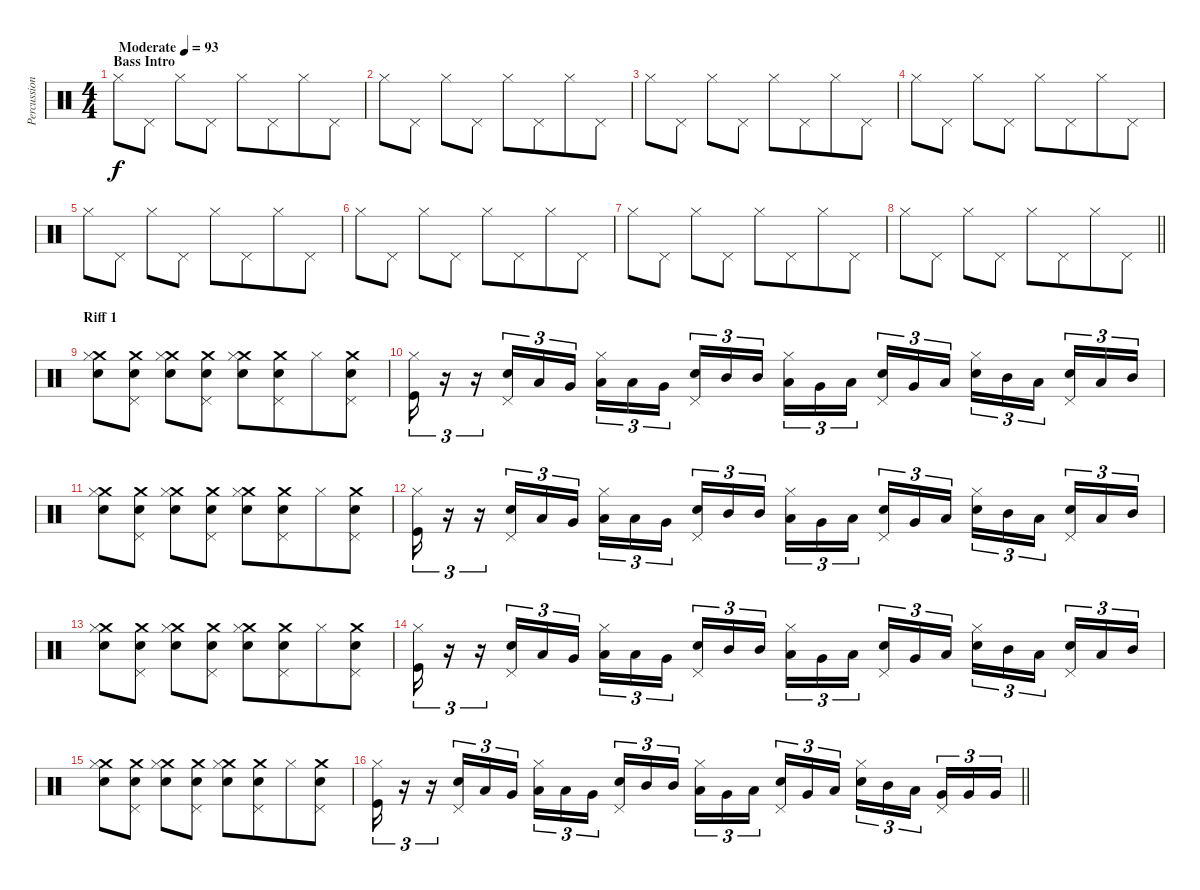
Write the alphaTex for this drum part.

\track ("Percussion" "Percussion") {instrument percussion}
\staff {score}
\articulation defaults
\ts (4 4)
\section ("" "Bass Intro")
\tempo (93 "Moderate")
\clef neutral
\ks c "Hi-Hat (closed)".8{dy f} "Pedal Hi-Hat (hit)".8 "Hi-Hat (closed)".8{beam merge} "Pedal Hi-Hat (hit)".8 "Hi-Hat (closed)".8 "Pedal Hi-Hat (hit)".8{beam merge} "Hi-Hat (closed)".8 "Pedal Hi-Hat (hit)".8
|
"Hi-Hat (closed)".8 "Pedal Hi-Hat (hit)".8 "Hi-Hat (closed)".8{beam merge} "Pedal Hi-Hat (hit)".8 "Hi-Hat (closed)".8 "Pedal Hi-Hat (hit)".8{beam merge} "Hi-Hat (closed)".8 "Pedal Hi-Hat (hit)".8 |
"Hi-Hat (closed)".8 "Pedal Hi-Hat (hit)".8 "Hi-Hat (closed)".8{beam merge} "Pedal Hi-Hat (hit)".8 "Hi-Hat (closed)".8 "Pedal Hi-Hat (hit)".8{beam merge} "Hi-Hat (closed)".8 "Pedal Hi-Hat (hit)".8 |
"Hi-Hat (closed)".8 "Pedal Hi-Hat (hit)".8 "Hi-Hat (closed)".8{beam merge} "Pedal Hi-Hat (hit)".8 "Hi-Hat (closed)".8 "Pedal Hi-Hat (hit)".8{beam merge} "Hi-Hat (closed)".8 "Pedal Hi-Hat (hit)".8 |
"Hi-Hat (closed)".8 "Pedal Hi-Hat (hit)".8 "Hi-Hat (closed)".8{beam merge} "Pedal Hi-Hat (hit)".8 "Hi-Hat (closed)".8 "Pedal Hi-Hat (hit)".8{beam merge} "Hi-Hat (closed)".8 "Pedal Hi-Hat (hit)".8 |
"Hi-Hat (closed)".8 "Pedal Hi-Hat (hit)".8 "Hi-Hat (closed)".8{beam merge} "Pedal Hi-Hat (hit)".8 "Hi-Hat (closed)".8 "Pedal Hi-Hat (hit)".8{beam merge} "Hi-Hat (closed)".8 "Pedal Hi-Hat (hit)".8 |
"Hi-Hat (closed)".8 "Pedal Hi-Hat (hit)".8 "Hi-Hat (closed)".8{beam merge} "Pedal Hi-Hat (hit)".8 "Hi-Hat (closed)".8 "Pedal Hi-Hat (hit)".8{beam merge} "Hi-Hat (closed)".8 "Pedal Hi-Hat (hit)".8 |
\barLineRight lightlight "Hi-Hat (closed)".8 "Pedal Hi-Hat (hit)".8 "Hi-Hat (closed)".8{beam merge} "Pedal Hi-Hat (hit)".8 "Hi-Hat (closed)".8 "Pedal Hi-Hat (hit)".8{beam merge} "Hi-Hat (closed)".8 "Pedal Hi-Hat (hit)".8
|
\section ("" "Riff 1")
("Crash medium (hit)" "Hi-Hat (closed)" "Snare (hit) 2").8 ("Crash medium (hit)" "Pedal Hi-Hat (hit)" "Snare (hit) 2").8 ("Crash medium (hit)" "Hi-Hat (closed)" "Snare (hit) 2").8{beam merge} ("Crash medium (hit)" "Pedal Hi-Hat (hit)" "Snare (hit) 2").8 ("Crash medium (hit)" "Hi-Hat (closed)" "Snare (hit) 2").8 ("Crash medium (hit)" "Pedal Hi-Hat (hit)" "Snare (hit) 2").8{beam merge} "Hi-Hat (closed)".8 ("Crash medium (hit)" "Pedal Hi-Hat (hit)" "Snare (hit) 2").8 |
("Hi-Hat (closed)" "Kick (hit)").16{tu (3 2)} r.16{tu (3 2)} r.16{tu (3 2)} ("Pedal Hi-Hat (hit)" "Snare (hit) 2").16{tu (3 2) beam merge} "Low Tom (hit)".16{tu (3 2)} "Very Low Tom (hit)".16{tu (3 2)} ("Hi-Hat (closed)" "Low Floor Tom (hit)").16{tu (3 2) beam merge} "Low Floor Tom (hit)".16{tu (3 2)} "Very Low Tom (hit)".16{tu (3 2) beam splitsecondary} ("Pedal Hi-Hat (hit)" "Snare (hit) 2").16{tu (3 2)} "Mid Tom (hit)".16{tu (3 2)} "Mid Tom (hit)".16{tu (3 2)} ("Hi-Hat (closed)" "Low Tom (hit)").16{tu (3 2)} "Very Low Tom (hit)".16{tu (3 2)} "Low Floor Tom (hit)".16{tu (3 2) beam splitsecondary} ("Pedal Hi-Hat (hit)" "Snare (hit) 2").16{tu (3 2)} "Very Low Tom (hit)".16{tu (3 2) beam merge} "Low Tom (hit)".16{tu (3 2)} ("Hi-Hat (closed)" "Snare (hit) 2").16{tu (3 2)} "Mid Tom (hit)".16{tu (3 2)} "Low Tom (hit)".16{tu (3 2) beam splitsecondary} ("Pedal Hi-Hat (hit)" "Snare (hit) 2").16{tu (3 2)} "Low Tom (hit)".16{tu (3 2)} "Mid Tom (hit)".16{tu (3 2)} |
("Crash medium (hit)" "Hi-Hat (closed)" "Snare (hit) 2").8 ("Crash medium (hit)" "Pedal Hi-Hat (hit)" "Snare (hit) 2").8 ("Crash medium (hit)" "Hi-Hat (closed)" "Snare (hit) 2").8{beam merge} ("Crash medium (hit)" "Pedal Hi-Hat (hit)" "Snare (hit) 2").8 ("Crash medium (hit)" "Hi-Hat (closed)" "Snare (hit) 2").8 ("Crash medium (hit)" "Pedal Hi-Hat (hit)" "Snare (hit) 2").8{beam merge} "Hi-Hat (closed)".8 ("Crash medium (hit)" "Pedal Hi-Hat (hit)" "Snare (hit) 2").8 |
("Hi-Hat (closed)" "Kick (hit)").16{tu (3 2)} r.16{tu (3 2)} r.16{tu (3 2)} ("Pedal Hi-Hat (hit)" "Snare (hit) 2").16{tu (3 2) beam merge} "Low Tom (hit)".16{tu (3 2)} "Very Low Tom (hit)".16{tu (3 2)} ("Hi-Hat (closed)" "Low Floor Tom (hit)").16{tu (3 2) beam merge} "Low Floor Tom (hit)".16{tu (3 2)} "Very Low Tom (hit)".16{tu (3 2) beam splitsecondary} ("Pedal Hi-Hat (hit)" "Snare (hit) 2").16{tu (3 2)} "Mid Tom (hit)".16{tu (3 2)} "Mid Tom (hit)".16{tu (3 2)} ("Hi-Hat (closed)" "Low Tom (hit)").16{tu (3 2)} "Very Low Tom (hit)".16{tu (3 2)} "Low Floor Tom (hit)".16{tu (3 2) beam splitsecondary} ("Pedal Hi-Hat (hit)" "Snare (hit) 2").16{tu (3 2)} "Very Low Tom (hit)".16{tu (3 2) beam merge} "Low Tom (hit)".16{tu (3 2)} ("Hi-Hat (closed)" "Snare (hit) 2").16{tu (3 2)} "Mid Tom (hit)".16{tu (3 2)} "Low Tom (hit)".16{tu (3 2) beam splitsecondary} ("Pedal Hi-Hat (hit)" "Snare (hit) 2").16{tu (3 2)} "Low Tom (hit)".16{tu (3 2)} "Mid Tom (hit)".16{tu (3 2)} |
("Crash medium (hit)" "Hi-Hat (closed)" "Snare (hit) 2").8 ("Crash medium (hit)" "Pedal Hi-Hat (hit)" "Snare (hit) 2").8 ("Crash medium (hit)" "Hi-Hat (closed)" "Snare (hit) 2").8{beam merge} ("Crash medium (hit)" "Pedal Hi-Hat (hit)" "Snare (hit) 2").8 ("Crash medium (hit)" "Hi-Hat (closed)" "Snare (hit) 2").8 ("Crash medium (hit)" "Pedal Hi-Hat (hit)" "Snare (hit) 2").8{beam merge} "Hi-Hat (closed)".8 ("Crash medium (hit)" "Pedal Hi-Hat (hit)" "Snare (hit) 2").8 |
("Hi-Hat (closed)" "Kick (hit)").16{tu (3 2)} r.16{tu (3 2)} r.16{tu (3 2)} ("Pedal Hi-Hat (hit)" "Snare (hit) 2").16{tu (3 2) beam merge} "Low Tom (hit)".16{tu (3 2)} "Very Low Tom (hit)".16{tu (3 2)} ("Hi-Hat (closed)" "Low Floor Tom (hit)").16{tu (3 2) beam merge} "Low Floor Tom (hit)".16{tu (3 2)} "Very Low Tom (hit)".16{tu (3 2) beam splitsecondary} ("Pedal Hi-Hat (hit)" "Snare (hit) 2").16{tu (3 2)} "Mid Tom (hit)".16{tu (3 2)} "Mid Tom (hit)".16{tu (3 2)} ("Hi-Hat (closed)" "Low Tom (hit)").16{tu (3 2)} "Very Low Tom (hit)".16{tu (3 2)} "Low Floor Tom (hit)".16{tu (3 2) beam splitsecondary} ("Pedal Hi-Hat (hit)" "Snare (hit) 2").16{tu (3 2)} "Very Low Tom (hit)".16{tu (3 2) beam merge} "Low Tom (hit)".16{tu (3 2)} ("Hi-Hat (closed)" "Snare (hit) 2").16{tu (3 2)} "Mid Tom (hit)".16{tu (3 2)} "Low Tom (hit)".16{tu (3 2) beam splitsecondary} ("Pedal Hi-Hat (hit)" "Snare (hit) 2").16{tu (3 2)} "Low Tom (hit)".16{tu (3 2)} "Mid Tom (hit)".16{tu (3 2)} |
("Crash medium (hit)" "Hi-Hat (closed)" "Snare (hit) 2").8 ("Crash medium (hit)" "Pedal Hi-Hat (hit)" "Snare (hit) 2").8 ("Crash medium (hit)" "Hi-Hat (closed)" "Snare (hit) 2").8{beam merge} ("Crash medium (hit)" "Pedal Hi-Hat (hit)" "Snare (hit) 2").8 ("Crash medium (hit)" "Hi-Hat (closed)" "Snare (hit) 2").8 ("Crash medium (hit)" "Pedal Hi-Hat (hit)" "Snare (hit) 2").8{beam merge} "Hi-Hat (closed)".8 ("Crash medium (hit)" "Pedal Hi-Hat (hit)" "Snare (hit) 2").8 |
\barLineRight lightlight
("Hi-Hat (closed)" "Kick (hit)").16{tu (3 2)} r.16{tu (3 2)} r.16{tu (3 2)} ("Pedal Hi-Hat (hit)" "Snare (hit) 2").16{tu (3 2) beam merge} "Low Tom (hit)".16{tu (3 2)} "Very Low Tom (hit)".16{tu (3 2)} ("Hi-Hat (closed)" "Low Floor Tom (hit)").16{tu (3 2) beam merge} "Low Floor Tom (hit)".16{tu (3 2)} "Very Low Tom (hit)".16{tu (3 2) beam splitsecondary} ("Pedal Hi-Hat (hit)" "Snare (hit) 2").16{tu (3 2)} "Mid Tom (hit)".16{tu (3 2)} "Mid Tom (hit)".16{tu (3 2)} ("Hi-Hat (closed)" "Low Tom (hit)").16{tu (3 2)} "Very Low Tom (hit)".16{tu (3 2)} "Low Floor Tom (hit)".16{tu (3 2) beam splitsecondary} ("Pedal Hi-Hat (hit)" "Snare (hit) 2").16{tu (3 2)} "Very Low Tom (hit)".16{tu (3 2) beam merge} "Low Tom (hit)".16{tu (3 2)} ("Hi-Hat (closed)" "Snare (hit) 2").16{tu (3 2)} "Mid Tom (hit)".16{tu (3 2)} "Low Tom (hit)".16{tu (3 2) beam splitsecondary} ("Pedal Hi-Hat (hit)" "Very Low Tom (hit)").16{tu (3 2)} "Very Low Tom (hit)".16{tu (3 2)} "Very Low Tom (hit)".16{tu (3 2)}
